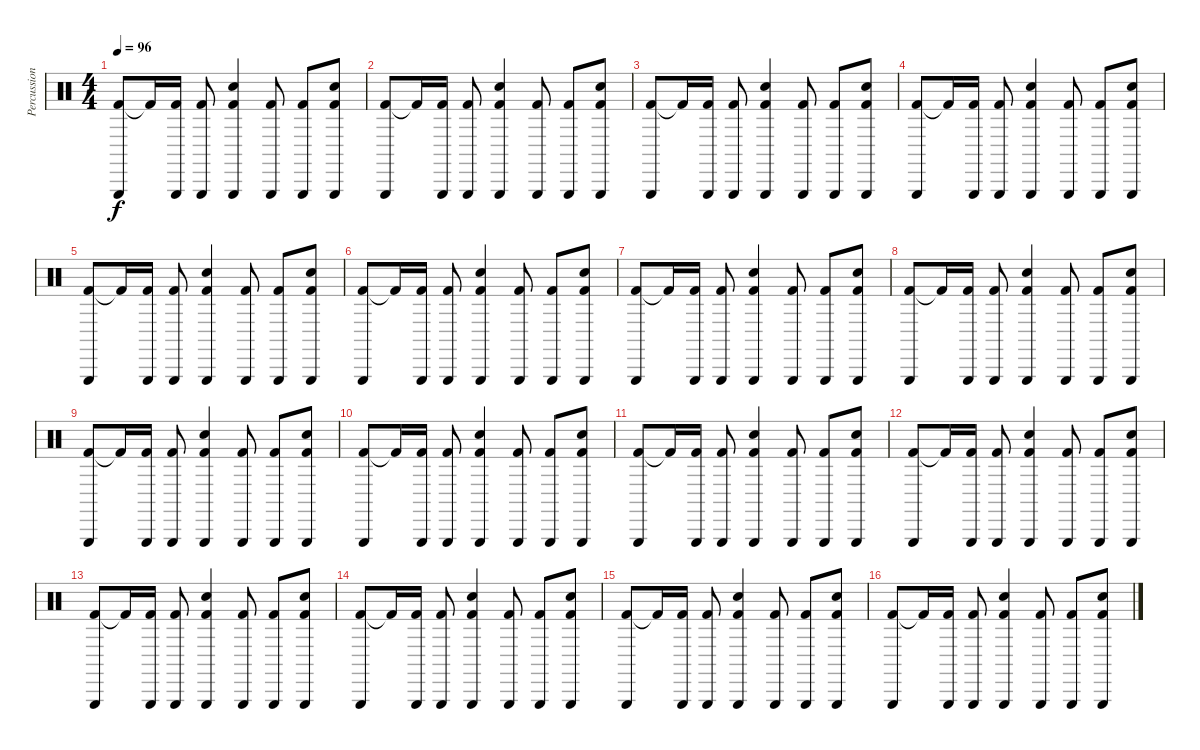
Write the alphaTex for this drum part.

\track ("Percussion" "Percussion") {instrument percussion}
\staff {score}
\articulation defaults
\ts (4 4)
\tempo 96
\clef neutral
\ks c
("Kick (hit) 2" "Triangle (hit)").8{dy f} "Kick (hit) 2"{t}.16 ("Kick (hit) 2" "Triangle (hit)").16 ("Kick (hit) 2" "Triangle (hit)").8 ("Kick (hit) 2" "Snare (hit) 2" "Triangle (hit)").4 ("Kick (hit) 2" "Triangle (hit)").8 ("Kick (hit) 2" "Triangle (hit)").8 ("Kick (hit) 2" "Snare (hit) 2" "Triangle (hit)").8 |
("Kick (hit) 2" "Triangle (hit)").8 "Kick (hit) 2"{t}.16 ("Kick (hit) 2" "Triangle (hit)").16 ("Kick (hit) 2" "Triangle (hit)").8 ("Kick (hit) 2" "Snare (hit) 2" "Triangle (hit)").4 ("Kick (hit) 2" "Triangle (hit)").8 ("Kick (hit) 2" "Triangle (hit)").8 ("Kick (hit) 2" "Snare (hit) 2" "Triangle (hit)").8 |
("Kick (hit) 2" "Triangle (hit)").8 "Kick (hit) 2"{t}.16 ("Kick (hit) 2" "Triangle (hit)").16 ("Kick (hit) 2" "Triangle (hit)").8 ("Kick (hit) 2" "Snare (hit) 2" "Triangle (hit)").4 ("Kick (hit) 2" "Triangle (hit)").8 ("Kick (hit) 2" "Triangle (hit)").8 ("Kick (hit) 2" "Snare (hit) 2" "Triangle (hit)").8 |
("Kick (hit) 2" "Triangle (hit)").8 "Kick (hit) 2"{t}.16 ("Kick (hit) 2" "Triangle (hit)").16 ("Kick (hit) 2" "Triangle (hit)").8 ("Kick (hit) 2" "Snare (hit) 2" "Triangle (hit)").4 ("Kick (hit) 2" "Triangle (hit)").8 ("Kick (hit) 2" "Triangle (hit)").8 ("Kick (hit) 2" "Snare (hit) 2" "Triangle (hit)").8 |
("Kick (hit) 2" "Triangle (hit)").8 "Kick (hit) 2"{t}.16 ("Kick (hit) 2" "Triangle (hit)").16 ("Kick (hit) 2" "Triangle (hit)").8 ("Kick (hit) 2" "Snare (hit) 2" "Triangle (hit)").4 ("Kick (hit) 2" "Triangle (hit)").8 ("Kick (hit) 2" "Triangle (hit)").8 ("Kick (hit) 2" "Snare (hit) 2" "Triangle (hit)").8 |
("Kick (hit) 2" "Triangle (hit)").8 "Kick (hit) 2"{t}.16 ("Kick (hit) 2" "Triangle (hit)").16 ("Kick (hit) 2" "Triangle (hit)").8 ("Kick (hit) 2" "Snare (hit) 2" "Triangle (hit)").4 ("Kick (hit) 2" "Triangle (hit)").8 ("Kick (hit) 2" "Triangle (hit)").8 ("Kick (hit) 2" "Snare (hit) 2" "Triangle (hit)").8 |
("Kick (hit) 2" "Triangle (hit)").8 "Kick (hit) 2"{t}.16 ("Kick (hit) 2" "Triangle (hit)").16 ("Kick (hit) 2" "Triangle (hit)").8 ("Kick (hit) 2" "Snare (hit) 2" "Triangle (hit)").4 ("Kick (hit) 2" "Triangle (hit)").8 ("Kick (hit) 2" "Triangle (hit)").8 ("Kick (hit) 2" "Snare (hit) 2" "Triangle (hit)").8 |
("Kick (hit) 2" "Triangle (hit)").8 "Kick (hit) 2"{t}.16 ("Kick (hit) 2" "Triangle (hit)").16 ("Kick (hit) 2" "Triangle (hit)").8 ("Kick (hit) 2" "Snare (hit) 2" "Triangle (hit)").4 ("Kick (hit) 2" "Triangle (hit)").8 ("Kick (hit) 2" "Triangle (hit)").8 ("Kick (hit) 2" "Snare (hit) 2" "Triangle (hit)").8 |
("Kick (hit) 2" "Triangle (hit)").8 "Kick (hit) 2"{t}.16 ("Kick (hit) 2" "Triangle (hit)").16 ("Kick (hit) 2" "Triangle (hit)").8 ("Kick (hit) 2" "Snare (hit) 2" "Triangle (hit)").4 ("Kick (hit) 2" "Triangle (hit)").8 ("Kick (hit) 2" "Triangle (hit)").8 ("Kick (hit) 2" "Snare (hit) 2" "Triangle (hit)").8 |
("Kick (hit) 2" "Triangle (hit)").8 "Kick (hit) 2"{t}.16 ("Kick (hit) 2" "Triangle (hit)").16 ("Kick (hit) 2" "Triangle (hit)").8 ("Kick (hit) 2" "Snare (hit) 2" "Triangle (hit)").4 ("Kick (hit) 2" "Triangle (hit)").8 ("Kick (hit) 2" "Triangle (hit)").8 ("Kick (hit) 2" "Snare (hit) 2" "Triangle (hit)").8 |
("Kick (hit) 2" "Triangle (hit)").8 "Kick (hit) 2"{t}.16 ("Kick (hit) 2" "Triangle (hit)").16 ("Kick (hit) 2" "Triangle (hit)").8 ("Kick (hit) 2" "Snare (hit) 2" "Triangle (hit)").4 ("Kick (hit) 2" "Triangle (hit)").8 ("Kick (hit) 2" "Triangle (hit)").8 ("Kick (hit) 2" "Snare (hit) 2" "Triangle (hit)").8 |
("Kick (hit) 2" "Triangle (hit)").8 "Kick (hit) 2"{t}.16 ("Kick (hit) 2" "Triangle (hit)").16 ("Kick (hit) 2" "Triangle (hit)").8 ("Kick (hit) 2" "Snare (hit) 2" "Triangle (hit)").4 ("Kick (hit) 2" "Triangle (hit)").8 ("Kick (hit) 2" "Triangle (hit)").8 ("Kick (hit) 2" "Snare (hit) 2" "Triangle (hit)").8 |
("Kick (hit) 2" "Triangle (hit)").8 "Kick (hit) 2"{t}.16 ("Kick (hit) 2" "Triangle (hit)").16 ("Kick (hit) 2" "Triangle (hit)").8 ("Kick (hit) 2" "Snare (hit) 2" "Triangle (hit)").4 ("Kick (hit) 2" "Triangle (hit)").8 ("Kick (hit) 2" "Triangle (hit)").8 ("Kick (hit) 2" "Snare (hit) 2" "Triangle (hit)").8 |
("Kick (hit) 2" "Triangle (hit)").8 "Kick (hit) 2"{t}.16 ("Kick (hit) 2" "Triangle (hit)").16 ("Kick (hit) 2" "Triangle (hit)").8 ("Kick (hit) 2" "Snare (hit) 2" "Triangle (hit)").4 ("Kick (hit) 2" "Triangle (hit)").8 ("Kick (hit) 2" "Triangle (hit)").8 ("Kick (hit) 2" "Snare (hit) 2" "Triangle (hit)").8 |
("Kick (hit) 2" "Triangle (hit)").8 "Kick (hit) 2"{t}.16 ("Kick (hit) 2" "Triangle (hit)").16 ("Kick (hit) 2" "Triangle (hit)").8 ("Kick (hit) 2" "Snare (hit) 2" "Triangle (hit)").4 ("Kick (hit) 2" "Triangle (hit)").8 ("Kick (hit) 2" "Triangle (hit)").8 ("Kick (hit) 2" "Snare (hit) 2" "Triangle (hit)").8 |
("Kick (hit) 2" "Triangle (hit)").8 "Kick (hit) 2"{t}.16 ("Kick (hit) 2" "Triangle (hit)").16 ("Kick (hit) 2" "Triangle (hit)").8 ("Kick (hit) 2" "Snare (hit) 2" "Triangle (hit)").4 ("Kick (hit) 2" "Triangle (hit)").8 ("Kick (hit) 2" "Triangle (hit)").8 ("Kick (hit) 2" "Snare (hit) 2" "Triangle (hit)").8
